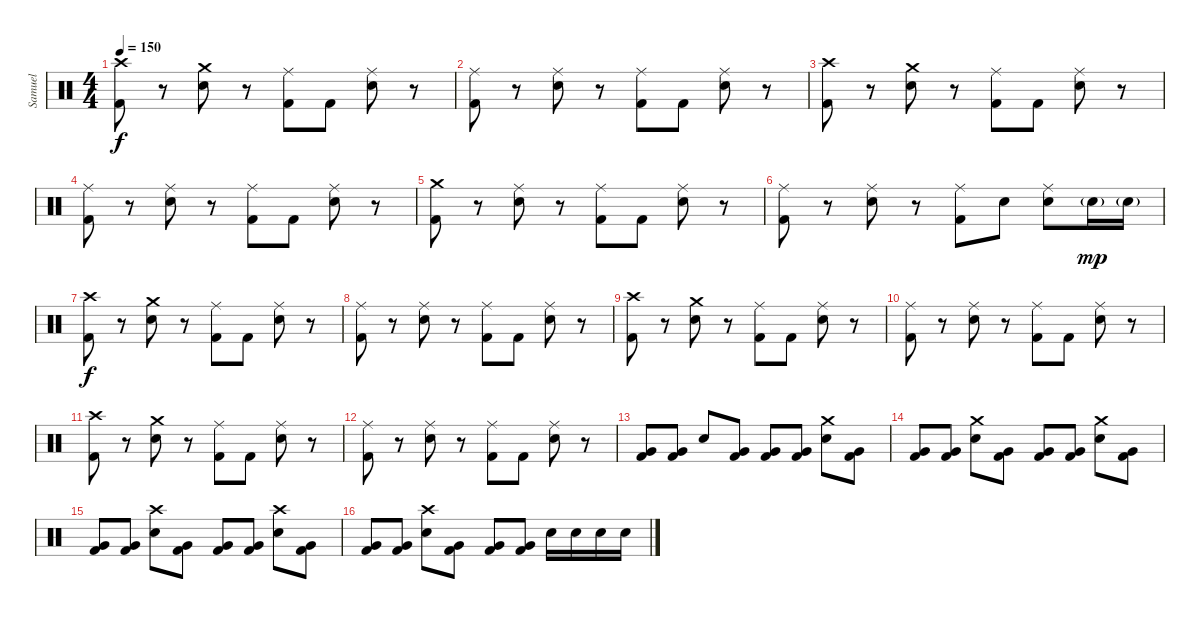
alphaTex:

\track ("Samuel" "Samuel") {instrument percussion}
\staff {score}
\articulation defaults
\ts (4 4)
\tempo 150
\clef neutral
\ks c
("Crash high (hit)" "Kick (hit) 2").8{dy f} r.8 ("Crash medium (hit)" "Snare (hit) 2").8 r.8 ("Ride (middle)" "Kick (hit) 2").8 "Kick (hit) 2".8 ("Ride (middle)" "Snare (hit) 2").8 r.8 |
("Ride (middle)" "Kick (hit) 2").8 r.8 ("Ride (middle)" "Snare (hit) 2").8 r.8 ("Ride (middle)" "Kick (hit) 2").8 "Kick (hit) 2".8 ("Ride (middle)" "Snare (hit) 2").8 r.8 |
("Crash high (hit)" "Kick (hit) 2").8 r.8 ("Crash medium (hit)" "Snare (hit) 2").8 r.8 ("Ride (middle)" "Kick (hit) 2").8 "Kick (hit) 2".8 ("Ride (middle)" "Snare (hit) 2").8 r.8 |
("Ride (middle)" "Kick (hit) 2").8 r.8 ("Ride (middle)" "Snare (hit) 2").8 r.8 ("Ride (middle)" "Kick (hit) 2").8 "Kick (hit) 2".8 ("Ride (middle)" "Snare (hit) 2").8 r.8 |
("Crash medium (hit)" "Kick (hit) 2").8 r.8 ("Ride (middle)" "Snare (hit) 2").8 r.8 ("Ride (middle)" "Kick (hit) 2").8 "Kick (hit) 2".8 ("Ride (middle)" "Snare (hit) 2").8 r.8 |
("Ride (middle)" "Kick (hit) 2").8 r.8 ("Ride (middle)" "Snare (hit) 2").8 r.8 ("Ride (middle)" "Kick (hit) 2").8 "Snare (hit) 2".8 ("Ride (middle)" "Snare (hit) 2").8 "Snare (hit) 2"{g}.16{dy mp} "Snare (hit) 2"{g}.16 |
("Crash high (hit)" "Kick (hit) 2").8{dy f} r.8 ("Crash medium (hit)" "Snare (hit) 2").8 r.8 ("Ride (middle)" "Kick (hit) 2").8 "Kick (hit) 2".8 ("Ride (middle)" "Snare (hit) 2").8 r.8 |
("Ride (middle)" "Kick (hit) 2").8 r.8 ("Ride (middle)" "Snare (hit) 2").8 r.8 ("Ride (middle)" "Kick (hit) 2").8 "Kick (hit) 2".8 ("Ride (middle)" "Snare (hit) 2").8 r.8 |
("Crash high (hit)" "Kick (hit) 2").8 r.8 ("Crash medium (hit)" "Snare (hit) 2").8 r.8 ("Ride (middle)" "Kick (hit) 2").8 "Kick (hit) 2".8 ("Ride (middle)" "Snare (hit) 2").8 r.8 |
("Ride (middle)" "Kick (hit) 2").8 r.8 ("Ride (middle)" "Snare (hit) 2").8 r.8 ("Ride (middle)" "Kick (hit) 2").8 "Kick (hit) 2".8 ("Ride (middle)" "Snare (hit) 2").8 r.8 |
("Crash high (hit)" "Kick (hit) 2").8 r.8 ("Crash medium (hit)" "Snare (hit) 2").8 r.8 ("Ride (middle)" "Kick (hit) 2").8 "Kick (hit) 2".8 ("Ride (middle)" "Snare (hit) 2").8 r.8 |
("Ride (middle)" "Kick (hit) 2").8 r.8 ("Ride (middle)" "Snare (hit) 2").8 r.8 ("Ride (middle)" "Kick (hit) 2").8 "Kick (hit) 2".8 ("Ride (middle)" "Snare (hit) 2").8 r.8 |
("Very Low Tom (hit)" "Kick (hit) 2").8 ("Very Low Tom (hit)" "Kick (hit) 2").8 "Snare (hit) 2".8 ("Very Low Tom (hit)" "Kick (hit) 2").8 ("Very Low Tom (hit)" "Kick (hit) 2").8 ("Very Low Tom (hit)" "Kick (hit) 2").8 ("Crash medium (hit)" "Snare (hit) 2").8 ("Very Low Tom (hit)" "Kick (hit) 2").8 |
("Very Low Tom (hit)" "Kick (hit) 2").8 ("Very Low Tom (hit)" "Kick (hit) 2").8 ("Crash medium (hit)" "Snare (hit) 2").8 ("Very Low Tom (hit)" "Kick (hit) 2").8 ("Very Low Tom (hit)" "Kick (hit) 2").8 ("Very Low Tom (hit)" "Kick (hit) 2").8 ("Crash medium (hit)" "Snare (hit) 2").8 ("Very Low Tom (hit)" "Kick (hit) 2").8 |
("Very Low Tom (hit)" "Kick (hit) 2").8 ("Very Low Tom (hit)" "Kick (hit) 2").8 ("Crash high (hit)" "Snare (hit) 2").8 ("Very Low Tom (hit)" "Kick (hit) 2").8 ("Very Low Tom (hit)" "Kick (hit) 2").8 ("Very Low Tom (hit)" "Kick (hit) 2").8 ("Crash high (hit)" "Snare (hit) 2").8 ("Very Low Tom (hit)" "Kick (hit) 2").8 |
("Very Low Tom (hit)" "Kick (hit) 2").8 ("Very Low Tom (hit)" "Kick (hit) 2").8 ("Crash high (hit)" "Snare (hit) 2").8 ("Very Low Tom (hit)" "Kick (hit) 2").8 ("Very Low Tom (hit)" "Kick (hit) 2").8 ("Very Low Tom (hit)" "Kick (hit) 2").8 "Snare (hit) 2".16 "Snare (hit) 2".16 "Snare (hit) 2".16 "Snare (hit) 2".16
